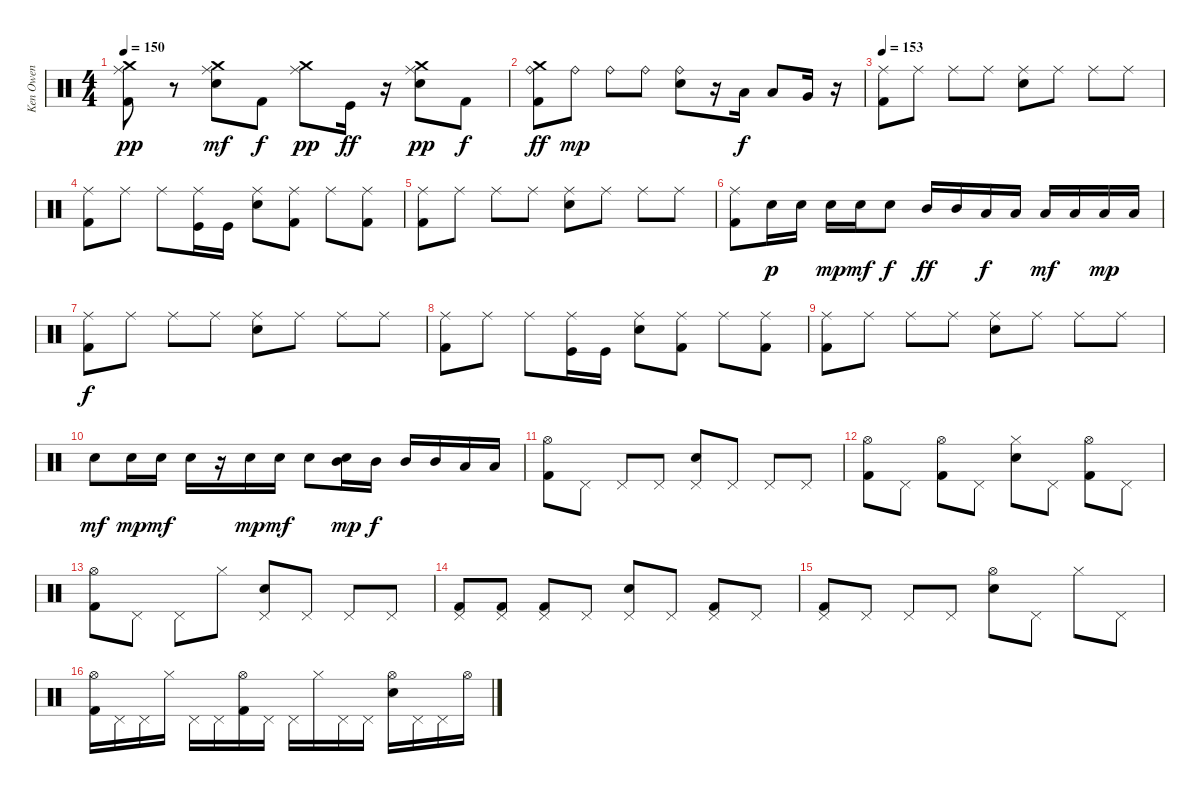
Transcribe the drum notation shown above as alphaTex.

\track ("Ken Owen" "Ken Owen") {instrument percussion}
\staff {score}
\articulation defaults
\ts (4 4)
\tempo 150
\clef neutral
\ks c
("Crash medium (hit)" "Ride (middle)" "Kick (hit) 2").8{dy pp} r.8 ("Crash medium (hit)" "Ride (middle)" "Electric Snare (hit)").8{dy mf} "Kick (hit) 2".8{dy f} ("Crash medium (hit)" "Ride (middle)").8{dy pp} "Kick (hit)".16{dy ff} r.16 ("Crash medium (hit)" "Ride (middle)" "Electric Snare (hit)").8{dy pp} "Kick (hit) 2".8{dy f} |
("Ride (bell)" "Kick (hit) 2" "Crash medium (hit)").8{dy ff} "Ride (bell)".8{dy mp} "Ride (bell)".8 "Ride (bell)".8 ("Ride (bell)" "Electric Snare (hit)").8 r.16 "Low Tom (hit)".16{dy f} "Low Tom (hit)".8 "Very Low Tom (hit)".16 r.16 |
\tempo 153
("Ride (middle)" "Kick (hit) 2").8 "Ride (middle)".8 "Ride (middle)".8 "Ride (middle)".8 ("Ride (middle)" "Electric Snare (hit)").8 "Ride (middle)".8 "Ride (middle)".8 "Ride (middle)".8 |
("Ride (middle)" "Kick (hit) 2").8 "Ride (middle)".8 "Ride (middle)".8 ("Ride (middle)" "Kick (hit)").16 "Kick (hit)".16 ("Ride (middle)" "Electric Snare (hit)").8 ("Ride (middle)" "Kick (hit) 2").8 "Ride (middle)".8 ("Ride (middle)" "Kick (hit) 2").8 |
("Ride (middle)" "Kick (hit) 2").8 "Ride (middle)".8 "Ride (middle)".8 "Ride (middle)".8 ("Ride (middle)" "Electric Snare (hit)").8 "Ride (middle)".8 "Ride (middle)".8 "Ride (middle)".8 |
("Ride (middle)" "Kick (hit) 2").8 "Electric Snare (hit)".16{dy p balance 5} "Electric Snare (hit)".16 "Electric Snare (hit)".16{dy mp balance 6} "Electric Snare (hit)".16{dy mf} "Electric Snare (hit)".8{dy f balance 7} "Mid Tom (hit)".16{dy ff balance 9} "Mid Tom (hit)".16{balance 10} "Low Tom (hit)".16{dy f} "Low Tom (hit)".16 "Low Tom (hit)".16{dy mf balance 11} "Low Tom (hit)".16{balance 12} "Low Tom (hit)".16{dy mp balance 13} "Low Tom (hit)".16{balance 8} |
("Ride (middle)" "Kick (hit) 2").8{dy f} "Ride (middle)".8 "Ride (middle)".8 "Ride (middle)".8 ("Ride (middle)" "Electric Snare (hit)").8 "Ride (middle)".8 "Ride (middle)".8 "Ride (middle)".8 |
("Ride (middle)" "Kick (hit) 2").8 "Ride (middle)".8 "Ride (middle)".8 ("Ride (middle)" "Kick (hit)").16 "Kick (hit)".16 ("Ride (middle)" "Electric Snare (hit)").8 ("Ride (middle)" "Kick (hit) 2").8 "Ride (middle)".8 ("Ride (middle)" "Kick (hit) 2").8 |
("Ride (middle)" "Kick (hit) 2").8 "Ride (middle)".8 "Ride (middle)".8 "Ride (middle)".8 ("Ride (middle)" "Electric Snare (hit)").8 "Ride (middle)".8 "Ride (middle)".8 "Ride (middle)".8 |
"Electric Snare (hit)".8{dy mf} "Electric Snare (hit)".16{dy mp} "Electric Snare (hit)".16{dy mf} "Electric Snare (hit)".16 r.16 "Electric Snare (hit)".16{dy mp} "Electric Snare (hit)".16{dy mf} "Electric Snare (hit)".8 ("Electric Snare (hit)" "Mid Tom (hit)").16{dy mp} "Mid Tom (hit)".16{dy f} "Mid Tom (hit)".16 "Mid Tom (hit)".16 "Low Tom (hit)".16 "Low Tom (hit)".16 |
("Hi-Hat (open)" "Kick (hit) 2").8{balance 8} "Pedal Hi-Hat (hit)".8 "Pedal Hi-Hat (hit)".8 "Pedal Hi-Hat (hit)".8 ("Pedal Hi-Hat (hit)" "Electric Snare (hit)").8 "Pedal Hi-Hat (hit)".8 "Pedal Hi-Hat (hit)".8 "Pedal Hi-Hat (hit)".8 |
("Hi-Hat (open)" "Kick (hit) 2").8 "Pedal Hi-Hat (hit)".8 ("Hi-Hat (open)" "Kick (hit) 2").8 "Pedal Hi-Hat (hit)".8 ("Hi-Hat (closed)" "Electric Snare (hit)").8 "Pedal Hi-Hat (hit)".8 ("Hi-Hat (open)" "Kick (hit) 2").8 "Pedal Hi-Hat (hit)".8 |
("Hi-Hat (open)" "Kick (hit) 2").8 "Pedal Hi-Hat (hit)".8 "Pedal Hi-Hat (hit)".8 "Hi-Hat (closed)".8 ("Pedal Hi-Hat (hit)" "Electric Snare (hit)").8 "Pedal Hi-Hat (hit)".8 "Pedal Hi-Hat (hit)".8 "Pedal Hi-Hat (hit)".8 |
("Pedal Hi-Hat (hit)" "Kick (hit) 2").8 ("Pedal Hi-Hat (hit)" "Kick (hit) 2").8 ("Pedal Hi-Hat (hit)" "Kick (hit) 2").8 "Pedal Hi-Hat (hit)".8 ("Pedal Hi-Hat (hit)" "Electric Snare (hit)").8 "Pedal Hi-Hat (hit)".8 ("Pedal Hi-Hat (hit)" "Kick (hit) 2").8 "Pedal Hi-Hat (hit)".8 |
("Pedal Hi-Hat (hit)" "Kick (hit) 2").8 "Pedal Hi-Hat (hit)".8 "Pedal Hi-Hat (hit)".8 "Pedal Hi-Hat (hit)".8 ("Hi-Hat (open)" "Electric Snare (hit)").8 "Pedal Hi-Hat (hit)".8 "Hi-Hat (closed)".8 "Pedal Hi-Hat (hit)".8 |
("Hi-Hat (open)" "Kick (hit) 2").16 "Pedal Hi-Hat (hit)".16 "Pedal Hi-Hat (hit)".16 "Hi-Hat (closed)".16 "Pedal Hi-Hat (hit)".16 "Pedal Hi-Hat (hit)".16 ("Hi-Hat (open)" "Kick (hit) 2").16 "Pedal Hi-Hat (hit)".16 "Pedal Hi-Hat (hit)".16 "Hi-Hat (closed)".16 "Pedal Hi-Hat (hit)".16 "Pedal Hi-Hat (hit)".16 ("Hi-Hat (open)" "Electric Snare (hit)").16 "Pedal Hi-Hat (hit)".16 "Pedal Hi-Hat (hit)".16 "Hi-Hat (open)".16
